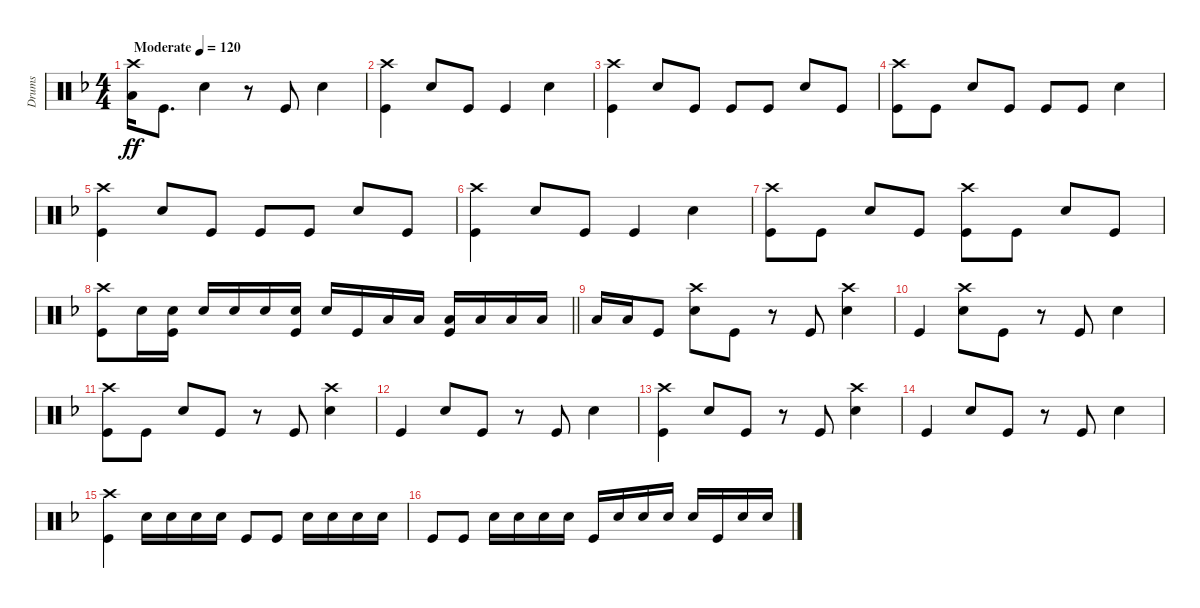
\track ("Drums" "Drums") {instrument percussion}
\staff {score}
\articulation defaults
\ts (4 4)
\tempo (120 "Moderate")
\clef neutral
\ks dminor
("Crash high (hit)" "Low Tom (hit)").16{dy ff} "Kick (hit)".8{d} "Snare (hit) 2".4 r.8 "Kick (hit)".8 "Snare (hit) 2".4 |
("Crash high (hit)" "Kick (hit)").4 "Snare (hit) 2".8 "Kick (hit)".8 "Kick (hit)".4 "Snare (hit) 2".4 |
("Crash high (hit)" "Kick (hit)").4 "Snare (hit) 2".8 "Kick (hit)".8 "Kick (hit)".8 "Kick (hit)".8 "Snare (hit) 2".8 "Kick (hit)".8 |
("Crash high (hit)" "Kick (hit)").8 "Kick (hit)".8 "Snare (hit) 2".8 "Kick (hit)".8 "Kick (hit)".8 "Kick (hit)".8 "Snare (hit) 2".4 |
("Crash high (hit)" "Kick (hit)").4 "Snare (hit) 2".8 "Kick (hit)".8 "Kick (hit)".8 "Kick (hit)".8 "Snare (hit) 2".8 "Kick (hit)".8 |
("Crash high (hit)" "Kick (hit)").4 "Snare (hit) 2".8 "Kick (hit)".8 "Kick (hit)".4 "Snare (hit) 2".4 |
("Crash high (hit)" "Kick (hit)").8 "Kick (hit)".8 "Snare (hit) 2".8 "Kick (hit)".8 ("Crash high (hit)" "Kick (hit)").8 "Kick (hit)".8 "Snare (hit) 2".8 "Kick (hit)".8 |
\barLineRight lightlight
("Crash high (hit)" "Kick (hit)").8 "Snare (hit) 2".16 ("Snare (hit) 2" "Kick (hit)").16 "Snare (hit) 2".16 "Snare (hit) 2".16 "Snare (hit) 2".16 ("Snare (hit) 2" "Kick (hit)").16 "Snare (hit) 2".16 "Kick (hit)".16 "Low Tom (hit)".16 "Low Tom (hit)".16 ("Low Tom (hit)" "Kick (hit)").16 "Low Tom (hit)".16 "Low Tom (hit)".16 "Low Tom (hit)".16 |
"Low Tom (hit)".16 "Low Tom (hit)".16 "Kick (hit)".8 ("Crash high (hit)" "Snare (hit) 2").8 "Kick (hit)".8 r.8 "Kick (hit)".8 ("Crash high (hit)" "Snare (hit) 2").4 |
"Kick (hit)".4 ("Crash high (hit)" "Snare (hit) 2").8 "Kick (hit)".8 r.8 "Kick (hit)".8 "Snare (hit) 2".4 |
("Crash high (hit)" "Kick (hit)").8 "Kick (hit)".8 "Snare (hit) 2".8 "Kick (hit)".8 r.8 "Kick (hit)".8 ("Crash high (hit)" "Snare (hit) 2").4 |
"Kick (hit)".4 "Snare (hit) 2".8 "Kick (hit)".8 r.8 "Kick (hit)".8 "Snare (hit) 2".4 |
("Crash high (hit)" "Kick (hit)").4 "Snare (hit) 2".8 "Kick (hit)".8 r.8 "Kick (hit)".8 ("Crash high (hit)" "Snare (hit) 2").4 |
"Kick (hit)".4 "Snare (hit) 2".8 "Kick (hit)".8 r.8 "Kick (hit)".8 "Snare (hit) 2".4 |
("Crash high (hit)" "Kick (hit)").4 "Snare (hit) 2".16 "Snare (hit) 2".16 "Snare (hit) 2".16 "Snare (hit) 2".16 "Kick (hit)".8 "Kick (hit)".8 "Snare (hit) 2".16 "Snare (hit) 2".16 "Snare (hit) 2".16 "Snare (hit) 2".16 |
"Kick (hit)".8 "Kick (hit)".8 "Snare (hit) 2".16 "Snare (hit) 2".16 "Snare (hit) 2".16 "Snare (hit) 2".16 "Kick (hit)".16 "Snare (hit) 2".16 "Snare (hit) 2".16 "Snare (hit) 2".16 "Snare (hit) 2".16 "Kick (hit)".16 "Snare (hit) 2".16 "Snare (hit) 2".16
